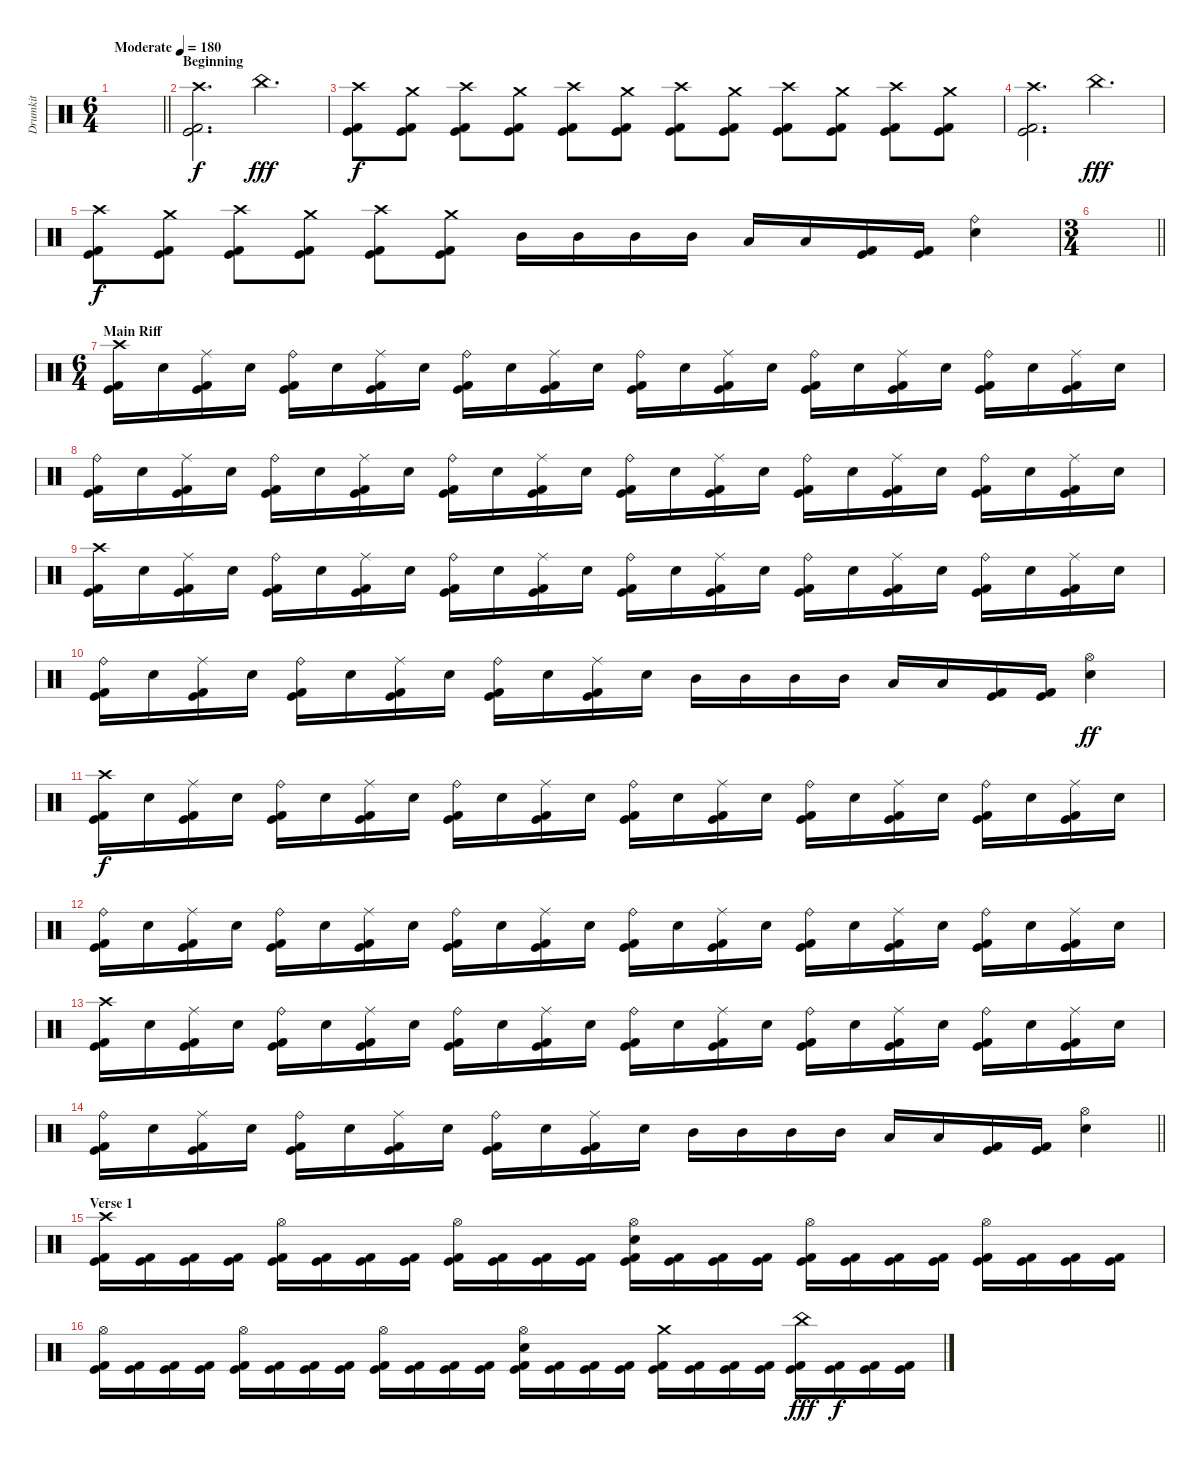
\track ("Drumkit" "Drumkit") {instrument percussion}
\staff {score}
\articulation defaults
\ts (6 4)
\tempo (180 "Moderate")
\clef neutral
\barLineRight lightlight
\ks c
|
\section ("" "Beginning")
("Crash high (hit)" "Kick (hit)" "Kick (hit) 2").2{d} "China (hit)".2{d dy fff} |
("Crash high (hit)" "Kick (hit)" "Kick (hit) 2").8{dy f} ("Crash medium (hit)" "Kick (hit)" "Kick (hit) 2").8 ("Crash high (hit)" "Kick (hit)" "Kick (hit) 2").8 ("Crash medium (hit)" "Kick (hit)" "Kick (hit) 2").8 ("Crash high (hit)" "Kick (hit)" "Kick (hit) 2").8 ("Crash medium (hit)" "Kick (hit)" "Kick (hit) 2").8 ("Crash high (hit)" "Kick (hit)" "Kick (hit) 2").8 ("Crash medium (hit)" "Kick (hit)" "Kick (hit) 2").8 ("Crash high (hit)" "Kick (hit)" "Kick (hit) 2").8 ("Crash medium (hit)" "Kick (hit)" "Kick (hit) 2").8 ("Crash high (hit)" "Kick (hit)" "Kick (hit) 2").8 ("Crash medium (hit)" "Kick (hit)" "Kick (hit) 2").8 |
("Crash high (hit)" "Kick (hit)" "Kick (hit) 2").2{d} "China (hit)".2{d dy fff} |
("Crash high (hit)" "Kick (hit)" "Kick (hit) 2").8{dy f} ("Crash medium (hit)" "Kick (hit)" "Kick (hit) 2").8 ("Crash high (hit)" "Kick (hit)" "Kick (hit) 2").8 ("Crash medium (hit)" "Kick (hit)" "Kick (hit) 2").8 ("Crash high (hit)" "Kick (hit)" "Kick (hit) 2").8 ("Crash medium (hit)" "Kick (hit)" "Kick (hit) 2").8 "Mid Tom (hit)".16 "Mid Tom (hit)".16 "Mid Tom (hit)".16 "Mid Tom (hit)".16 "Low Tom (hit)".16 "Low Tom (hit)".16 ("Kick (hit)" "Kick (hit) 2").16 ("Kick (hit)" "Kick (hit) 2").16 ("Ride (bell)" "Electric Snare (hit)").4 |
\ts (3 4)
\barLineRight lightlight
|
\ts (6 4)
\section ("" "Main Riff")
("Crash high (hit)" "Kick (hit)" "Kick (hit) 2").16 "Electric Snare (hit)".16 ("Ride (middle)" "Kick (hit)" "Kick (hit) 2").16 "Electric Snare (hit)".16 ("Ride (bell)" "Kick (hit)" "Kick (hit) 2").16 "Electric Snare (hit)".16 ("Ride (middle)" "Kick (hit)" "Kick (hit) 2").16 "Electric Snare (hit)".16 ("Ride (bell)" "Kick (hit)" "Kick (hit) 2").16 "Electric Snare (hit)".16 ("Ride (middle)" "Kick (hit)" "Kick (hit) 2").16 "Electric Snare (hit)".16 ("Ride (bell)" "Kick (hit)" "Kick (hit) 2").16 "Electric Snare (hit)".16 ("Ride (middle)" "Kick (hit)" "Kick (hit) 2").16 "Electric Snare (hit)".16 ("Ride (bell)" "Kick (hit)" "Kick (hit) 2").16 "Electric Snare (hit)".16 ("Ride (middle)" "Kick (hit)" "Kick (hit) 2").16 "Electric Snare (hit)".16 ("Ride (bell)" "Kick (hit)" "Kick (hit) 2").16 "Electric Snare (hit)".16 ("Ride (middle)" "Kick (hit)" "Kick (hit) 2").16 "Electric Snare (hit)".16 |
("Ride (bell)" "Kick (hit)" "Kick (hit) 2").16 "Electric Snare (hit)".16 ("Ride (middle)" "Kick (hit)" "Kick (hit) 2").16 "Electric Snare (hit)".16 ("Ride (bell)" "Kick (hit)" "Kick (hit) 2").16 "Electric Snare (hit)".16 ("Ride (middle)" "Kick (hit)" "Kick (hit) 2").16 "Electric Snare (hit)".16 ("Ride (bell)" "Kick (hit)" "Kick (hit) 2").16 "Electric Snare (hit)".16 ("Ride (middle)" "Kick (hit)" "Kick (hit) 2").16 "Electric Snare (hit)".16 ("Ride (bell)" "Kick (hit)" "Kick (hit) 2").16 "Electric Snare (hit)".16 ("Ride (middle)" "Kick (hit)" "Kick (hit) 2").16 "Electric Snare (hit)".16 ("Ride (bell)" "Kick (hit)" "Kick (hit) 2").16 "Electric Snare (hit)".16 ("Ride (middle)" "Kick (hit)" "Kick (hit) 2").16 "Electric Snare (hit)".16 ("Ride (bell)" "Kick (hit)" "Kick (hit) 2").16 "Electric Snare (hit)".16 ("Ride (middle)" "Kick (hit)" "Kick (hit) 2").16 "Electric Snare (hit)".16 |
("Crash high (hit)" "Kick (hit)" "Kick (hit) 2").16 "Electric Snare (hit)".16 ("Ride (middle)" "Kick (hit)" "Kick (hit) 2").16 "Electric Snare (hit)".16 ("Ride (bell)" "Kick (hit)" "Kick (hit) 2").16 "Electric Snare (hit)".16 ("Ride (middle)" "Kick (hit)" "Kick (hit) 2").16 "Electric Snare (hit)".16 ("Ride (bell)" "Kick (hit)" "Kick (hit) 2").16 "Electric Snare (hit)".16 ("Ride (middle)" "Kick (hit)" "Kick (hit) 2").16 "Electric Snare (hit)".16 ("Ride (bell)" "Kick (hit)" "Kick (hit) 2").16 "Electric Snare (hit)".16 ("Ride (middle)" "Kick (hit)" "Kick (hit) 2").16 "Electric Snare (hit)".16 ("Ride (bell)" "Kick (hit)" "Kick (hit) 2").16 "Electric Snare (hit)".16 ("Ride (middle)" "Kick (hit)" "Kick (hit) 2").16 "Electric Snare (hit)".16 ("Ride (bell)" "Kick (hit)" "Kick (hit) 2").16 "Electric Snare (hit)".16 ("Ride (middle)" "Kick (hit)" "Kick (hit) 2").16 "Electric Snare (hit)".16 |
("Ride (bell)" "Kick (hit)" "Kick (hit) 2").16 "Electric Snare (hit)".16 ("Ride (middle)" "Kick (hit)" "Kick (hit) 2").16 "Electric Snare (hit)".16 ("Ride (bell)" "Kick (hit)" "Kick (hit) 2").16 "Electric Snare (hit)".16 ("Ride (middle)" "Kick (hit)" "Kick (hit) 2").16 "Electric Snare (hit)".16 ("Ride (bell)" "Kick (hit)" "Kick (hit) 2").16 "Electric Snare (hit)".16 ("Ride (middle)" "Kick (hit)" "Kick (hit) 2").16 "Electric Snare (hit)".16 "Mid Tom (hit)".16 "Mid Tom (hit)".16 "Mid Tom (hit)".16 "Mid Tom (hit)".16 "Low Tom (hit)".16 "Low Tom (hit)".16 ("Kick (hit)" "Kick (hit) 2").16 ("Kick (hit)" "Kick (hit) 2").16 ("Hi-Hat (open)" "Electric Snare (hit)").4{dy ff} |
("Crash high (hit)" "Kick (hit)" "Kick (hit) 2").16{dy f} "Electric Snare (hit)".16 ("Ride (middle)" "Kick (hit)" "Kick (hit) 2").16 "Electric Snare (hit)".16 ("Ride (bell)" "Kick (hit)" "Kick (hit) 2").16 "Electric Snare (hit)".16 ("Ride (middle)" "Kick (hit)" "Kick (hit) 2").16 "Electric Snare (hit)".16 ("Ride (bell)" "Kick (hit)" "Kick (hit) 2").16 "Electric Snare (hit)".16 ("Ride (middle)" "Kick (hit)" "Kick (hit) 2").16 "Electric Snare (hit)".16 ("Ride (bell)" "Kick (hit)" "Kick (hit) 2").16 "Electric Snare (hit)".16 ("Ride (middle)" "Kick (hit)" "Kick (hit) 2").16 "Electric Snare (hit)".16 ("Ride (bell)" "Kick (hit)" "Kick (hit) 2").16 "Electric Snare (hit)".16 ("Ride (middle)" "Kick (hit)" "Kick (hit) 2").16 "Electric Snare (hit)".16 ("Ride (bell)" "Kick (hit)" "Kick (hit) 2").16 "Electric Snare (hit)".16 ("Ride (middle)" "Kick (hit)" "Kick (hit) 2").16 "Electric Snare (hit)".16 |
("Ride (bell)" "Kick (hit)" "Kick (hit) 2").16 "Electric Snare (hit)".16 ("Ride (middle)" "Kick (hit)" "Kick (hit) 2").16 "Electric Snare (hit)".16 ("Ride (bell)" "Kick (hit)" "Kick (hit) 2").16 "Electric Snare (hit)".16 ("Ride (middle)" "Kick (hit)" "Kick (hit) 2").16 "Electric Snare (hit)".16 ("Ride (bell)" "Kick (hit)" "Kick (hit) 2").16 "Electric Snare (hit)".16 ("Ride (middle)" "Kick (hit)" "Kick (hit) 2").16 "Electric Snare (hit)".16 ("Ride (bell)" "Kick (hit)" "Kick (hit) 2").16 "Electric Snare (hit)".16 ("Ride (middle)" "Kick (hit)" "Kick (hit) 2").16 "Electric Snare (hit)".16 ("Ride (bell)" "Kick (hit)" "Kick (hit) 2").16 "Electric Snare (hit)".16 ("Ride (middle)" "Kick (hit)" "Kick (hit) 2").16 "Electric Snare (hit)".16 ("Ride (bell)" "Kick (hit)" "Kick (hit) 2").16 "Electric Snare (hit)".16 ("Ride (middle)" "Kick (hit)" "Kick (hit) 2").16 "Electric Snare (hit)".16 |
("Crash high (hit)" "Kick (hit)" "Kick (hit) 2").16 "Electric Snare (hit)".16 ("Ride (middle)" "Kick (hit)" "Kick (hit) 2").16 "Electric Snare (hit)".16 ("Ride (bell)" "Kick (hit)" "Kick (hit) 2").16 "Electric Snare (hit)".16 ("Ride (middle)" "Kick (hit)" "Kick (hit) 2").16 "Electric Snare (hit)".16 ("Ride (bell)" "Kick (hit)" "Kick (hit) 2").16 "Electric Snare (hit)".16 ("Ride (middle)" "Kick (hit)" "Kick (hit) 2").16 "Electric Snare (hit)".16 ("Ride (bell)" "Kick (hit)" "Kick (hit) 2").16 "Electric Snare (hit)".16 ("Ride (middle)" "Kick (hit)" "Kick (hit) 2").16 "Electric Snare (hit)".16 ("Ride (bell)" "Kick (hit)" "Kick (hit) 2").16 "Electric Snare (hit)".16 ("Ride (middle)" "Kick (hit)" "Kick (hit) 2").16 "Electric Snare (hit)".16 ("Ride (bell)" "Kick (hit)" "Kick (hit) 2").16 "Electric Snare (hit)".16 ("Ride (middle)" "Kick (hit)" "Kick (hit) 2").16 "Electric Snare (hit)".16 |
\barLineRight lightlight
("Ride (bell)" "Kick (hit)" "Kick (hit) 2").16 "Electric Snare (hit)".16 ("Ride (middle)" "Kick (hit)" "Kick (hit) 2").16 "Electric Snare (hit)".16 ("Ride (bell)" "Kick (hit)" "Kick (hit) 2").16 "Electric Snare (hit)".16 ("Ride (middle)" "Kick (hit)" "Kick (hit) 2").16 "Electric Snare (hit)".16 ("Ride (bell)" "Kick (hit)" "Kick (hit) 2").16 "Electric Snare (hit)".16 ("Ride (middle)" "Kick (hit)" "Kick (hit) 2").16 "Electric Snare (hit)".16 "Mid Tom (hit)".16 "Mid Tom (hit)".16 "Mid Tom (hit)".16 "Mid Tom (hit)".16 "Low Tom (hit)".16 "Low Tom (hit)".16 ("Kick (hit)" "Kick (hit) 2").16 ("Kick (hit)" "Kick (hit) 2").16 ("Hi-Hat (open)" "Electric Snare (hit)").4 |
\section ("" "Verse 1")
("Crash high (hit)" "Kick (hit)" "Kick (hit) 2").16 ("Kick (hit)" "Kick (hit) 2").16 ("Kick (hit)" "Kick (hit) 2").16 ("Kick (hit)" "Kick (hit) 2").16 ("Hi-Hat (open)" "Kick (hit)" "Kick (hit) 2").16 ("Kick (hit)" "Kick (hit) 2").16 ("Kick (hit)" "Kick (hit) 2").16 ("Kick (hit)" "Kick (hit) 2").16 ("Hi-Hat (open)" "Kick (hit)" "Kick (hit) 2").16 ("Kick (hit)" "Kick (hit) 2").16 ("Kick (hit)" "Kick (hit) 2").16 ("Kick (hit)" "Kick (hit) 2").16 ("Hi-Hat (open)" "Electric Snare (hit)" "Kick (hit)" "Kick (hit) 2").16 ("Kick (hit)" "Kick (hit) 2").16 ("Kick (hit)" "Kick (hit) 2").16 ("Kick (hit)" "Kick (hit) 2").16 ("Hi-Hat (open)" "Kick (hit)" "Kick (hit) 2").16 ("Kick (hit)" "Kick (hit) 2").16 ("Kick (hit)" "Kick (hit) 2").16 ("Kick (hit)" "Kick (hit) 2").16 ("Hi-Hat (open)" "Kick (hit)" "Kick (hit) 2").16 ("Kick (hit)" "Kick (hit) 2").16 ("Kick (hit)" "Kick (hit) 2").16 ("Kick (hit)" "Kick (hit) 2").16 |
("Hi-Hat (open)" "Kick (hit)" "Kick (hit) 2").16 ("Kick (hit)" "Kick (hit) 2").16 ("Kick (hit)" "Kick (hit) 2").16 ("Kick (hit)" "Kick (hit) 2").16 ("Hi-Hat (open)" "Kick (hit)" "Kick (hit) 2").16 ("Kick (hit)" "Kick (hit) 2").16 ("Kick (hit)" "Kick (hit) 2").16 ("Kick (hit)" "Kick (hit) 2").16 ("Hi-Hat (open)" "Kick (hit)" "Kick (hit) 2").16 ("Kick (hit)" "Kick (hit) 2").16 ("Kick (hit)" "Kick (hit) 2").16 ("Kick (hit)" "Kick (hit) 2").16 ("Hi-Hat (open)" "Electric Snare (hit)" "Kick (hit)" "Kick (hit) 2").16 ("Kick (hit)" "Kick (hit) 2").16 ("Kick (hit)" "Kick (hit) 2").16 ("Kick (hit)" "Kick (hit) 2").16 ("Crash medium (hit)" "Kick (hit)" "Kick (hit) 2").16 ("Kick (hit)" "Kick (hit) 2").16 ("Kick (hit)" "Kick (hit) 2").16 ("Kick (hit)" "Kick (hit) 2").16 ("China (hit)" "Kick (hit)" "Kick (hit) 2").16{dy fff} ("Kick (hit)" "Kick (hit) 2").16{dy f} ("Kick (hit)" "Kick (hit) 2").16 ("Kick (hit)" "Kick (hit) 2").16
